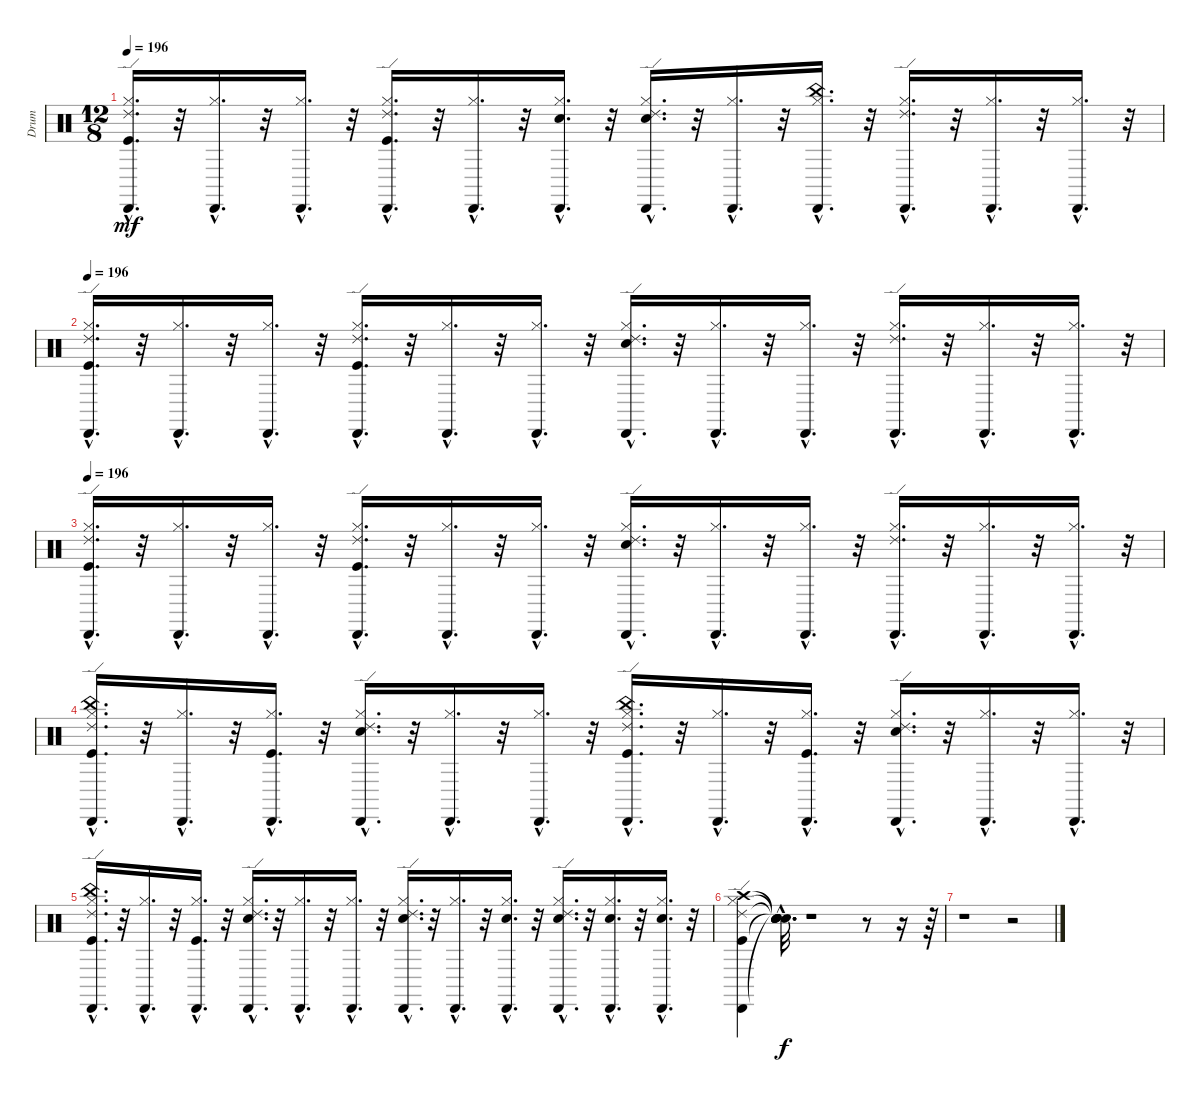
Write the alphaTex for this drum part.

\track ("Drum" "Drum") {instrument percussion}
\staff {score}
\articulation defaults
\ts (12 8)
\tempo 196
\clef neutral
\ks c
("Ride (edge) 2"{hac} "Kick (hit)"{hac} "Cabasa (hit)"{hac} "Hi-Hat (closed)"{hac}).16{d dy mf} r.32 ("Hi-Hat (closed)"{hac} "Cabasa (hit)"{hac}).16{d} r.32 ("Cabasa (hit)"{hac} "Hi-Hat (closed)"{hac}).16{d} r.32 ("Cabasa (hit)"{hac} "Kick (hit)"{hac} "Ride (edge) 2"{hac} "Hi-Hat (closed)"{hac}).16{d} r.32 ("Hi-Hat (closed)"{hac} "Cabasa (hit)"{hac}).16{d} r.32 ("Snare (hit) 2"{hac} "Hi-Hat (closed)"{hac} "Cabasa (hit)"{hac}).16{d} r.32 ("Cabasa (hit)"{hac} "Hi-Hat (closed)"{hac} "Snare (hit) 2"{hac} "Ride (edge) 2"{hac}).16{d} r.32 ("Hi-Hat (closed)"{hac} "Cabasa (hit)"{hac}).16{d} r.32 ("Hi-Hat (closed)"{hac} "China (hit)"{hac} "Cabasa (hit)"{hac}).16{d} r.32 ("Cabasa (hit)"{hac} "Hi-Hat (closed)"{hac} "Ride (edge) 2"{hac}).16{d} r.32 ("Cabasa (hit)"{hac} "Hi-Hat (closed)"{hac}).16{d} r.32 ("Cabasa (hit)"{hac} "Hi-Hat (closed)"{hac}).16{d} r.32 |
\tempo 196
("Hi-Hat (closed)"{hac} "Kick (hit)"{hac} "Cabasa (hit)"{hac} "Ride (edge) 2"{hac}).16{d} r.32 ("Hi-Hat (closed)"{hac} "Cabasa (hit)"{hac}).16{d} r.32 ("Hi-Hat (closed)"{hac} "Cabasa (hit)"{hac}).16{d} r.32 ("Hi-Hat (closed)"{hac} "Kick (hit)"{hac} "Cabasa (hit)"{hac} "Ride (edge) 2"{hac}).16{d} r.32 ("Hi-Hat (closed)"{hac} "Cabasa (hit)"{hac}).16{d} r.32 ("Hi-Hat (closed)"{hac} "Cabasa (hit)"{hac}).16{d} r.32 ("Hi-Hat (closed)"{hac} "Snare (hit) 2"{hac} "Cabasa (hit)"{hac} "Ride (edge) 2"{hac}).16{d} r.32 ("Hi-Hat (closed)"{hac} "Cabasa (hit)"{hac}).16{d} r.32 ("Hi-Hat (closed)"{hac} "Cabasa (hit)"{hac}).16{d} r.32 ("Hi-Hat (closed)"{hac} "Cabasa (hit)"{hac} "Ride (edge) 2"{hac}).16{d} r.32 ("Hi-Hat (closed)"{hac} "Cabasa (hit)"{hac}).16{d} r.32 ("Hi-Hat (closed)"{hac} "Cabasa (hit)"{hac}).16{d} r.32 |
\tempo 196
("Ride (edge) 2"{hac} "Cabasa (hit)"{hac} "Kick (hit)"{hac} "Hi-Hat (closed)"{hac}).16{d} r.32 ("Cabasa (hit)"{hac} "Hi-Hat (closed)"{hac}).16{d} r.32 ("Hi-Hat (closed)"{hac} "Cabasa (hit)"{hac}).16{d} r.32 ("Kick (hit)"{hac} "Ride (edge) 2"{hac} "Hi-Hat (closed)"{hac} "Cabasa (hit)"{hac}).16{d} r.32 ("Cabasa (hit)"{hac} "Hi-Hat (closed)"{hac}).16{d} r.32 ("Hi-Hat (closed)"{hac} "Cabasa (hit)"{hac}).16{d} r.32 ("Snare (hit) 2"{hac} "Hi-Hat (closed)"{hac} "Cabasa (hit)"{hac} "Ride (edge) 2"{hac}).16{d} r.32 ("Hi-Hat (closed)"{hac} "Cabasa (hit)"{hac}).16{d} r.32 ("Cabasa (hit)"{hac} "Hi-Hat (closed)"{hac}).16{d} r.32 ("Cabasa (hit)"{hac} "Hi-Hat (closed)"{hac} "Ride (edge) 2"{hac}).16{d} r.32 ("Hi-Hat (closed)"{hac} "Cabasa (hit)"{hac}).16{d} r.32 ("Hi-Hat (closed)"{hac} "Cabasa (hit)"{hac}).16{d} r.32 |
("Kick (hit)"{hac} "Hi-Hat (closed)"{hac} "Ride (edge) 2"{hac} "Cabasa (hit)"{hac} "China (hit)"{hac}).16{d} r.32 ("Hi-Hat (closed)"{hac} "Cabasa (hit)"{hac}).16{d} r.32 ("Hi-Hat (closed)"{hac} "Kick (hit)"{hac} "Cabasa (hit)"{hac}).16{d} r.32 ("Cabasa (hit)"{hac} "Ride (edge) 2"{hac} "Hi-Hat (closed)"{hac} "Snare (hit) 2"{hac}).16{d} r.32 ("Cabasa (hit)"{hac} "Hi-Hat (closed)"{hac}).16{d} r.32 ("Hi-Hat (closed)"{hac} "Cabasa (hit)"{hac}).16{d} r.32 ("Kick (hit)"{hac} "China (hit)"{hac} "Cabasa (hit)"{hac} "Ride (edge) 2"{hac} "Hi-Hat (closed)"{hac}).16{d} r.32 ("Hi-Hat (closed)"{hac} "Cabasa (hit)"{hac}).16{d} r.32 ("Cabasa (hit)"{hac} "Kick (hit)"{hac} "Hi-Hat (closed)"{hac}).16{d} r.32 ("Cabasa (hit)"{hac} "Snare (hit) 2"{hac} "Hi-Hat (closed)"{hac} "Ride (edge) 2"{hac}).16{d} r.32 ("Hi-Hat (closed)"{hac} "Cabasa (hit)"{hac}).16{d} r.32 ("Cabasa (hit)"{hac} "Hi-Hat (closed)"{hac}).16{d} r.32 |
("Cabasa (hit)"{hac} "Hi-Hat (closed)"{hac} "Ride (edge) 2"{hac} "Kick (hit)"{hac} "China (hit)"{hac}).16{d} r.32 ("Cabasa (hit)"{hac} "Hi-Hat (closed)"{hac}).16{d} r.32 ("Cabasa (hit)"{hac} "Hi-Hat (closed)"{hac} "Kick (hit)"{hac}).16{d} r.32 ("Snare (hit) 2"{hac} "Ride (edge) 2"{hac} "Hi-Hat (closed)"{hac} "Cabasa (hit)"{hac}).16{d} r.32 ("Hi-Hat (closed)"{hac} "Cabasa (hit)"{hac}).16{d} r.32 ("Cabasa (hit)"{hac} "Hi-Hat (closed)"{hac}).16{d} r.32 ("Snare (hit) 2"{hac} "Hi-Hat (closed)"{hac} "Ride (edge) 2"{hac} "Cabasa (hit)"{hac}).16{d} r.32 ("Hi-Hat (closed)"{hac} "Cabasa (hit)"{hac}).16{d} r.32 ("Hi-Hat (closed)"{hac} "Snare (hit) 2"{hac} "Cabasa (hit)"{hac}).16{d} r.32 ("Cabasa (hit)"{hac} "Snare (hit) 2"{hac} "Ride (edge) 2"{hac} "Hi-Hat (closed)"{hac}).16{d} r.32 ("Hi-Hat (closed)"{hac} "Snare (hit) 2"{hac} "Cabasa (hit)"{hac}).16{d} r.32 ("Cabasa (hit)"{hac} "Snare (hit) 2"{hac} "Hi-Hat (closed)"{hac}).16{d} r.32 |
("Crash high (hit)" "Ride (edge) 2" "Cabasa (hit)" "Kick (hit)" "Hi-Hat (closed)").4 ("Snare (hit)"{hac t} "Snare (hit)"{hac t} "Snare (hit)"{hac t} "Snare (hit)"{hac t} "Snare (hit)"{hac t}).32{d dy f} r.1 r.8 r.16 r.64 |
r.1 r.2
